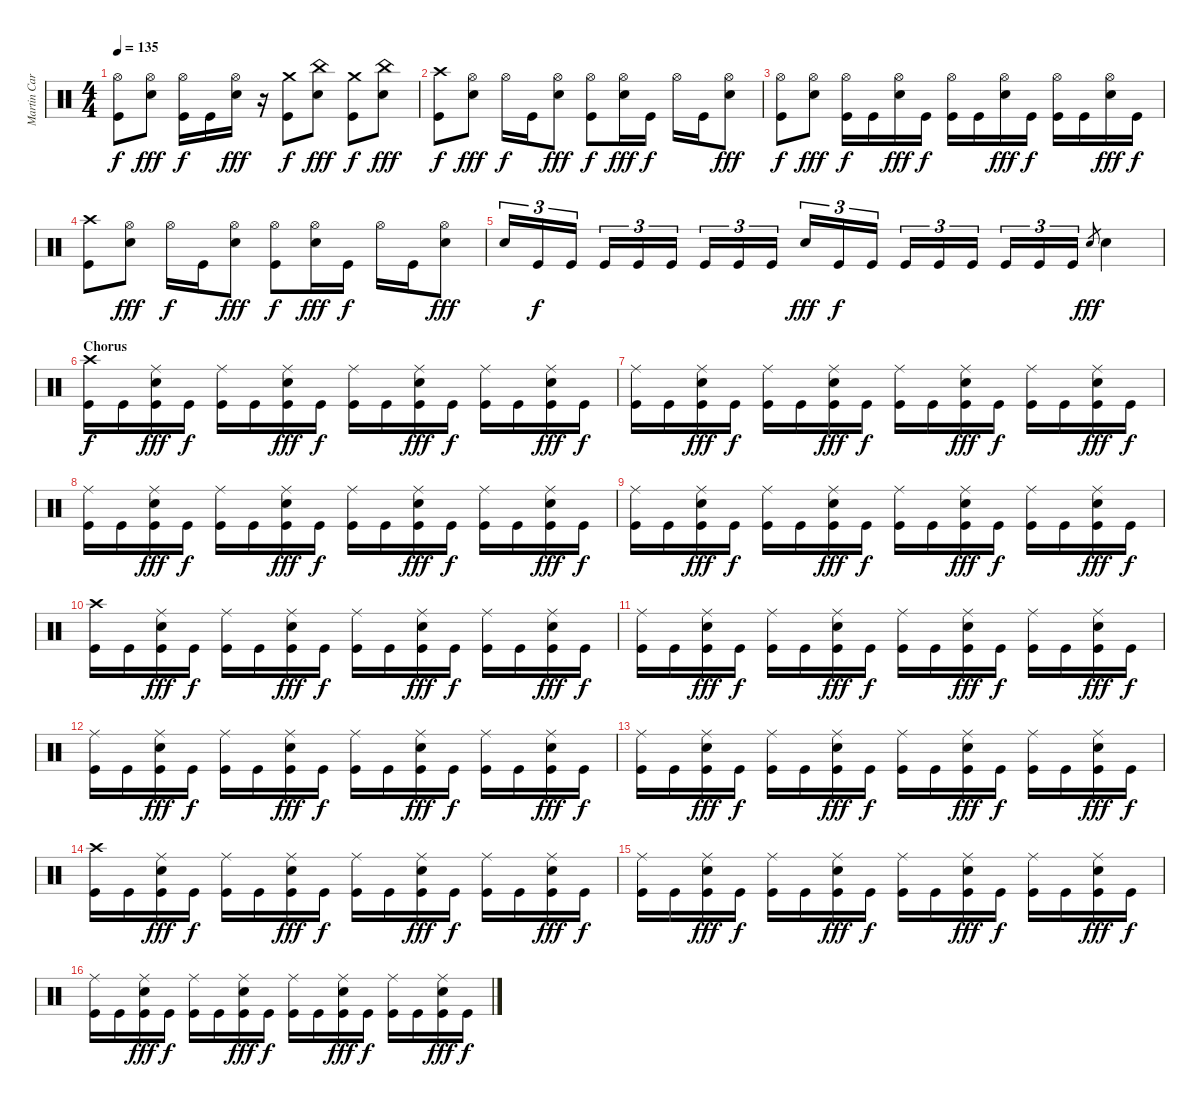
\track ("Martin Carrizo" "Martin Car") {instrument percussion}
\staff {score}
\articulation defaults
\ts (4 4)
\tempo 135
\clef neutral
\ks c
("Kick (hit)" "Hi-Hat (open)").8{dy f} ("Snare (hit) 2" "Hi-Hat (open)").8{dy fff} ("Kick (hit)" "Hi-Hat (open)").16{dy f} "Kick (hit)".16 ("Snare (hit) 2" "Hi-Hat (open)").16{dy fff} r.16 ("Kick (hit)" "Crash medium (hit)").8{dy f} ("Snare (hit) 2" "China (hit)").8{dy fff} ("Kick (hit)" "Crash medium (hit)").8{dy f} ("Snare (hit) 2" "China (hit)").8{dy fff} |
("Kick (hit)" "Crash high (hit)").8{dy f} ("Snare (hit) 2" "Hi-Hat (open)").8{dy fff} "Hi-Hat (open)".16{dy f} "Kick (hit)".16 ("Snare (hit) 2" "Hi-Hat (open)").8{dy fff} ("Kick (hit)" "Hi-Hat (open)").8{dy f} ("Snare (hit) 2" "Hi-Hat (open)").16{dy fff} "Kick (hit)".16{dy f} "Hi-Hat (open)".16 "Kick (hit)".16 ("Snare (hit) 2" "Hi-Hat (open)").8{dy fff} |
("Kick (hit)" "Hi-Hat (open)").8{dy f} ("Snare (hit) 2" "Hi-Hat (open)").8{dy fff} ("Kick (hit)" "Hi-Hat (open)").16{dy f} "Kick (hit)".16 ("Snare (hit) 2" "Hi-Hat (open)").16{dy fff} "Kick (hit)".16{dy f} ("Kick (hit)" "Hi-Hat (open)").16 "Kick (hit)".16 ("Snare (hit) 2" "Hi-Hat (open)").16{dy fff} "Kick (hit)".16{dy f} ("Kick (hit)" "Hi-Hat (open)").16 "Kick (hit)".16 ("Snare (hit) 2" "Hi-Hat (open)").16{dy fff} "Kick (hit)".16{dy f} |
("Kick (hit)" "Crash high (hit)").8 ("Snare (hit) 2" "Hi-Hat (open)").8{dy fff} "Hi-Hat (open)".16{dy f} "Kick (hit)".16 ("Snare (hit) 2" "Hi-Hat (open)").8{dy fff} ("Kick (hit)" "Hi-Hat (open)").8{dy f} ("Snare (hit) 2" "Hi-Hat (open)").16{dy fff} "Kick (hit)".16{dy f} "Hi-Hat (open)".16 "Kick (hit)".16 ("Snare (hit) 2" "Hi-Hat (open)").8{dy fff} |
"Snare (hit) 2".16{tu (3 2)} "Kick (hit)".16{tu (3 2) dy f} "Kick (hit)".16{tu (3 2)} "Kick (hit)".16{tu (3 2)} "Kick (hit)".16{tu (3 2)} "Kick (hit)".16{tu (3 2)} "Kick (hit)".16{tu (3 2)} "Kick (hit)".16{tu (3 2)} "Kick (hit)".16{tu (3 2)} "Snare (hit) 2".16{tu (3 2) dy fff} "Kick (hit)".16{tu (3 2) dy f} "Kick (hit)".16{tu (3 2)} "Kick (hit)".16{tu (3 2)} "Kick (hit)".16{tu (3 2)} "Kick (hit)".16{tu (3 2)} "Kick (hit)".16{tu (3 2)} "Kick (hit)".16{tu (3 2)} "Kick (hit)".16{tu (3 2)} "Snare (hit) 2".8{gr dy fff} "Snare (hit) 2".4 |
\section ("" "Chorus")
("Kick (hit)" "Crash high (hit)").16{dy f} "Kick (hit)".16 ("Kick (hit)" "Snare (hit) 2" "Ride (middle)").16{dy fff} "Kick (hit)".16{dy f} ("Kick (hit)" "Ride (middle)").16 "Kick (hit)".16 ("Kick (hit)" "Snare (hit) 2" "Ride (middle)").16{dy fff} "Kick (hit)".16{dy f} ("Kick (hit)" "Ride (middle)").16 "Kick (hit)".16 ("Kick (hit)" "Snare (hit) 2" "Ride (middle)").16{dy fff} "Kick (hit)".16{dy f} ("Kick (hit)" "Ride (middle)").16 "Kick (hit)".16 ("Kick (hit)" "Snare (hit) 2" "Ride (middle)").16{dy fff} "Kick (hit)".16{dy f} |
("Kick (hit)" "Ride (middle)").16 "Kick (hit)".16 ("Kick (hit)" "Snare (hit) 2" "Ride (middle)").16{dy fff} "Kick (hit)".16{dy f} ("Kick (hit)" "Ride (middle)").16 "Kick (hit)".16 ("Kick (hit)" "Snare (hit) 2" "Ride (middle)").16{dy fff} "Kick (hit)".16{dy f} ("Kick (hit)" "Ride (middle)").16 "Kick (hit)".16 ("Kick (hit)" "Snare (hit) 2" "Ride (middle)").16{dy fff} "Kick (hit)".16{dy f} ("Kick (hit)" "Ride (middle)").16 "Kick (hit)".16 ("Kick (hit)" "Snare (hit) 2" "Ride (middle)").16{dy fff} "Kick (hit)".16{dy f} |
("Kick (hit)" "Ride (middle)").16 "Kick (hit)".16 ("Kick (hit)" "Snare (hit) 2" "Ride (middle)").16{dy fff} "Kick (hit)".16{dy f} ("Kick (hit)" "Ride (middle)").16 "Kick (hit)".16 ("Kick (hit)" "Snare (hit) 2" "Ride (middle)").16{dy fff} "Kick (hit)".16{dy f} ("Kick (hit)" "Ride (middle)").16 "Kick (hit)".16 ("Kick (hit)" "Snare (hit) 2" "Ride (middle)").16{dy fff} "Kick (hit)".16{dy f} ("Kick (hit)" "Ride (middle)").16 "Kick (hit)".16 ("Kick (hit)" "Snare (hit) 2" "Ride (middle)").16{dy fff} "Kick (hit)".16{dy f} |
("Kick (hit)" "Ride (middle)").16 "Kick (hit)".16 ("Kick (hit)" "Snare (hit) 2" "Ride (middle)").16{dy fff} "Kick (hit)".16{dy f} ("Kick (hit)" "Ride (middle)").16 "Kick (hit)".16 ("Kick (hit)" "Snare (hit) 2" "Ride (middle)").16{dy fff} "Kick (hit)".16{dy f} ("Kick (hit)" "Ride (middle)").16 "Kick (hit)".16 ("Kick (hit)" "Snare (hit) 2" "Ride (middle)").16{dy fff} "Kick (hit)".16{dy f} ("Kick (hit)" "Ride (middle)").16 "Kick (hit)".16 ("Kick (hit)" "Snare (hit) 2" "Ride (middle)").16{dy fff} "Kick (hit)".16{dy f} |
("Kick (hit)" "Crash high (hit)").16 "Kick (hit)".16 ("Kick (hit)" "Snare (hit) 2" "Ride (middle)").16{dy fff} "Kick (hit)".16{dy f} ("Kick (hit)" "Ride (middle)").16 "Kick (hit)".16 ("Kick (hit)" "Snare (hit) 2" "Ride (middle)").16{dy fff} "Kick (hit)".16{dy f} ("Kick (hit)" "Ride (middle)").16 "Kick (hit)".16 ("Kick (hit)" "Snare (hit) 2" "Ride (middle)").16{dy fff} "Kick (hit)".16{dy f} ("Kick (hit)" "Ride (middle)").16 "Kick (hit)".16 ("Kick (hit)" "Snare (hit) 2" "Ride (middle)").16{dy fff} "Kick (hit)".16{dy f} |
("Kick (hit)" "Ride (middle)").16 "Kick (hit)".16 ("Kick (hit)" "Snare (hit) 2" "Ride (middle)").16{dy fff} "Kick (hit)".16{dy f} ("Kick (hit)" "Ride (middle)").16 "Kick (hit)".16 ("Kick (hit)" "Snare (hit) 2" "Ride (middle)").16{dy fff} "Kick (hit)".16{dy f} ("Kick (hit)" "Ride (middle)").16 "Kick (hit)".16 ("Kick (hit)" "Snare (hit) 2" "Ride (middle)").16{dy fff} "Kick (hit)".16{dy f} ("Kick (hit)" "Ride (middle)").16 "Kick (hit)".16 ("Kick (hit)" "Snare (hit) 2" "Ride (middle)").16{dy fff} "Kick (hit)".16{dy f} |
("Kick (hit)" "Ride (middle)").16 "Kick (hit)".16 ("Kick (hit)" "Snare (hit) 2" "Ride (middle)").16{dy fff} "Kick (hit)".16{dy f} ("Kick (hit)" "Ride (middle)").16 "Kick (hit)".16 ("Kick (hit)" "Snare (hit) 2" "Ride (middle)").16{dy fff} "Kick (hit)".16{dy f} ("Kick (hit)" "Ride (middle)").16 "Kick (hit)".16 ("Kick (hit)" "Snare (hit) 2" "Ride (middle)").16{dy fff} "Kick (hit)".16{dy f} ("Kick (hit)" "Ride (middle)").16 "Kick (hit)".16 ("Kick (hit)" "Snare (hit) 2" "Ride (middle)").16{dy fff} "Kick (hit)".16{dy f} |
("Kick (hit)" "Ride (middle)").16 "Kick (hit)".16 ("Kick (hit)" "Snare (hit) 2" "Ride (middle)").16{dy fff} "Kick (hit)".16{dy f} ("Kick (hit)" "Ride (middle)").16 "Kick (hit)".16 ("Kick (hit)" "Snare (hit) 2" "Ride (middle)").16{dy fff} "Kick (hit)".16{dy f} ("Kick (hit)" "Ride (middle)").16 "Kick (hit)".16 ("Kick (hit)" "Snare (hit) 2" "Ride (middle)").16{dy fff} "Kick (hit)".16{dy f} ("Kick (hit)" "Ride (middle)").16 "Kick (hit)".16 ("Kick (hit)" "Snare (hit) 2" "Ride (middle)").16{dy fff} "Kick (hit)".16{dy f} |
("Kick (hit)" "Crash high (hit)").16 "Kick (hit)".16 ("Kick (hit)" "Snare (hit) 2" "Ride (middle)").16{dy fff} "Kick (hit)".16{dy f} ("Kick (hit)" "Ride (middle)").16 "Kick (hit)".16 ("Kick (hit)" "Snare (hit) 2" "Ride (middle)").16{dy fff} "Kick (hit)".16{dy f} ("Kick (hit)" "Ride (middle)").16 "Kick (hit)".16 ("Kick (hit)" "Snare (hit) 2" "Ride (middle)").16{dy fff} "Kick (hit)".16{dy f} ("Kick (hit)" "Ride (middle)").16 "Kick (hit)".16 ("Kick (hit)" "Snare (hit) 2" "Ride (middle)").16{dy fff} "Kick (hit)".16{dy f} |
("Kick (hit)" "Ride (middle)").16 "Kick (hit)".16 ("Kick (hit)" "Snare (hit) 2" "Ride (middle)").16{dy fff} "Kick (hit)".16{dy f} ("Kick (hit)" "Ride (middle)").16 "Kick (hit)".16 ("Kick (hit)" "Snare (hit) 2" "Ride (middle)").16{dy fff} "Kick (hit)".16{dy f} ("Kick (hit)" "Ride (middle)").16 "Kick (hit)".16 ("Kick (hit)" "Snare (hit) 2" "Ride (middle)").16{dy fff} "Kick (hit)".16{dy f} ("Kick (hit)" "Ride (middle)").16 "Kick (hit)".16 ("Kick (hit)" "Snare (hit) 2" "Ride (middle)").16{dy fff} "Kick (hit)".16{dy f} |
("Kick (hit)" "Ride (middle)").16 "Kick (hit)".16 ("Kick (hit)" "Snare (hit) 2" "Ride (middle)").16{dy fff} "Kick (hit)".16{dy f} ("Kick (hit)" "Ride (middle)").16 "Kick (hit)".16 ("Kick (hit)" "Snare (hit) 2" "Ride (middle)").16{dy fff} "Kick (hit)".16{dy f} ("Kick (hit)" "Ride (middle)").16 "Kick (hit)".16 ("Kick (hit)" "Snare (hit) 2" "Ride (middle)").16{dy fff} "Kick (hit)".16{dy f} ("Kick (hit)" "Ride (middle)").16 "Kick (hit)".16 ("Kick (hit)" "Snare (hit) 2" "Ride (middle)").16{dy fff} "Kick (hit)".16{dy f}
